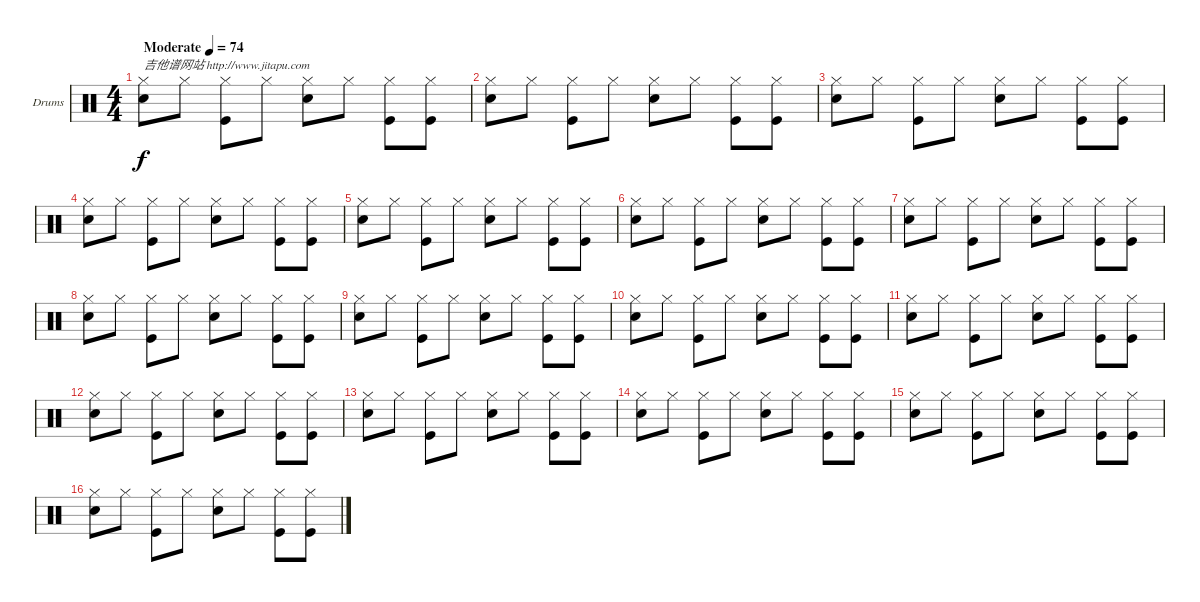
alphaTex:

\bracketExtendMode groupsimilarinstruments
\firstSystemTrackNameOrientation horizontal
\otherSystemsTrackNameOrientation horizontal
\track ("Drumkit" "Drums") {instrument percussion}
\staff {score}
\articulation defaults
\ts (4 4)
\beaming (8 2 2 2 2)
\tempo (74 "Moderate")
\clef neutral
\ks c
("Hi-Hat (closed)" "Snare (hit) 2").8{txt "吉他谱网站 http://www.jitapu.com" dy f} "Hi-Hat (closed)".8 ("Hi-Hat (closed)" "Kick (hit)").8 "Hi-Hat (closed)".8 ("Hi-Hat (closed)" "Snare (hit) 2").8 "Hi-Hat (closed)".8 ("Hi-Hat (closed)" "Kick (hit)").8 ("Hi-Hat (closed)" "Kick (hit)").8 |
("Hi-Hat (closed)" "Snare (hit) 2").8 "Hi-Hat (closed)".8 ("Hi-Hat (closed)" "Kick (hit)").8 "Hi-Hat (closed)".8 ("Hi-Hat (closed)" "Snare (hit) 2").8 "Hi-Hat (closed)".8 ("Hi-Hat (closed)" "Kick (hit)").8 ("Hi-Hat (closed)" "Kick (hit)").8 |
("Hi-Hat (closed)" "Snare (hit) 2").8 "Hi-Hat (closed)".8 ("Hi-Hat (closed)" "Kick (hit)").8 "Hi-Hat (closed)".8 ("Hi-Hat (closed)" "Snare (hit) 2").8 "Hi-Hat (closed)".8 ("Hi-Hat (closed)" "Kick (hit)").8 ("Hi-Hat (closed)" "Kick (hit)").8 |
("Hi-Hat (closed)" "Snare (hit) 2").8 "Hi-Hat (closed)".8 ("Hi-Hat (closed)" "Kick (hit)").8 "Hi-Hat (closed)".8 ("Hi-Hat (closed)" "Snare (hit) 2").8 "Hi-Hat (closed)".8 ("Hi-Hat (closed)" "Kick (hit)").8 ("Hi-Hat (closed)" "Kick (hit)").8 |
("Hi-Hat (closed)" "Snare (hit) 2").8 "Hi-Hat (closed)".8 ("Hi-Hat (closed)" "Kick (hit)").8 "Hi-Hat (closed)".8 ("Hi-Hat (closed)" "Snare (hit) 2").8 "Hi-Hat (closed)".8 ("Hi-Hat (closed)" "Kick (hit)").8 ("Hi-Hat (closed)" "Kick (hit)").8 |
("Hi-Hat (closed)" "Snare (hit) 2").8 "Hi-Hat (closed)".8 ("Hi-Hat (closed)" "Kick (hit)").8 "Hi-Hat (closed)".8 ("Hi-Hat (closed)" "Snare (hit) 2").8 "Hi-Hat (closed)".8 ("Hi-Hat (closed)" "Kick (hit)").8 ("Hi-Hat (closed)" "Kick (hit)").8 |
("Hi-Hat (closed)" "Snare (hit) 2").8 "Hi-Hat (closed)".8 ("Hi-Hat (closed)" "Kick (hit)").8 "Hi-Hat (closed)".8 ("Hi-Hat (closed)" "Snare (hit) 2").8 "Hi-Hat (closed)".8 ("Hi-Hat (closed)" "Kick (hit)").8 ("Hi-Hat (closed)" "Kick (hit)").8 |
("Hi-Hat (closed)" "Snare (hit) 2").8 "Hi-Hat (closed)".8 ("Hi-Hat (closed)" "Kick (hit)").8 "Hi-Hat (closed)".8 ("Hi-Hat (closed)" "Snare (hit) 2").8 "Hi-Hat (closed)".8 ("Hi-Hat (closed)" "Kick (hit)").8 ("Hi-Hat (closed)" "Kick (hit)").8 |
("Hi-Hat (closed)" "Snare (hit) 2").8 "Hi-Hat (closed)".8 ("Hi-Hat (closed)" "Kick (hit)").8 "Hi-Hat (closed)".8 ("Hi-Hat (closed)" "Snare (hit) 2").8 "Hi-Hat (closed)".8 ("Hi-Hat (closed)" "Kick (hit)").8 ("Hi-Hat (closed)" "Kick (hit)").8 |
("Hi-Hat (closed)" "Snare (hit) 2").8 "Hi-Hat (closed)".8 ("Hi-Hat (closed)" "Kick (hit)").8 "Hi-Hat (closed)".8 ("Hi-Hat (closed)" "Snare (hit) 2").8 "Hi-Hat (closed)".8 ("Hi-Hat (closed)" "Kick (hit)").8 ("Hi-Hat (closed)" "Kick (hit)").8 |
("Hi-Hat (closed)" "Snare (hit) 2").8 "Hi-Hat (closed)".8 ("Hi-Hat (closed)" "Kick (hit)").8 "Hi-Hat (closed)".8 ("Hi-Hat (closed)" "Snare (hit) 2").8 "Hi-Hat (closed)".8 ("Hi-Hat (closed)" "Kick (hit)").8 ("Hi-Hat (closed)" "Kick (hit)").8 |
("Hi-Hat (closed)" "Snare (hit) 2").8 "Hi-Hat (closed)".8 ("Hi-Hat (closed)" "Kick (hit)").8 "Hi-Hat (closed)".8 ("Hi-Hat (closed)" "Snare (hit) 2").8 "Hi-Hat (closed)".8 ("Hi-Hat (closed)" "Kick (hit)").8 ("Hi-Hat (closed)" "Kick (hit)").8 |
("Hi-Hat (closed)" "Snare (hit) 2").8 "Hi-Hat (closed)".8 ("Hi-Hat (closed)" "Kick (hit)").8 "Hi-Hat (closed)".8 ("Hi-Hat (closed)" "Snare (hit) 2").8 "Hi-Hat (closed)".8 ("Hi-Hat (closed)" "Kick (hit)").8 ("Hi-Hat (closed)" "Kick (hit)").8 |
("Hi-Hat (closed)" "Snare (hit) 2").8 "Hi-Hat (closed)".8 ("Hi-Hat (closed)" "Kick (hit)").8 "Hi-Hat (closed)".8 ("Hi-Hat (closed)" "Snare (hit) 2").8 "Hi-Hat (closed)".8 ("Hi-Hat (closed)" "Kick (hit)").8 ("Hi-Hat (closed)" "Kick (hit)").8 |
("Hi-Hat (closed)" "Snare (hit) 2").8 "Hi-Hat (closed)".8 ("Hi-Hat (closed)" "Kick (hit)").8 "Hi-Hat (closed)".8 ("Hi-Hat (closed)" "Snare (hit) 2").8 "Hi-Hat (closed)".8 ("Hi-Hat (closed)" "Kick (hit)").8 ("Hi-Hat (closed)" "Kick (hit)").8 |
("Hi-Hat (closed)" "Snare (hit) 2").8 "Hi-Hat (closed)".8 ("Hi-Hat (closed)" "Kick (hit)").8 "Hi-Hat (closed)".8 ("Hi-Hat (closed)" "Snare (hit) 2").8 "Hi-Hat (closed)".8 ("Hi-Hat (closed)" "Kick (hit)").8 ("Hi-Hat (closed)" "Kick (hit)").8
